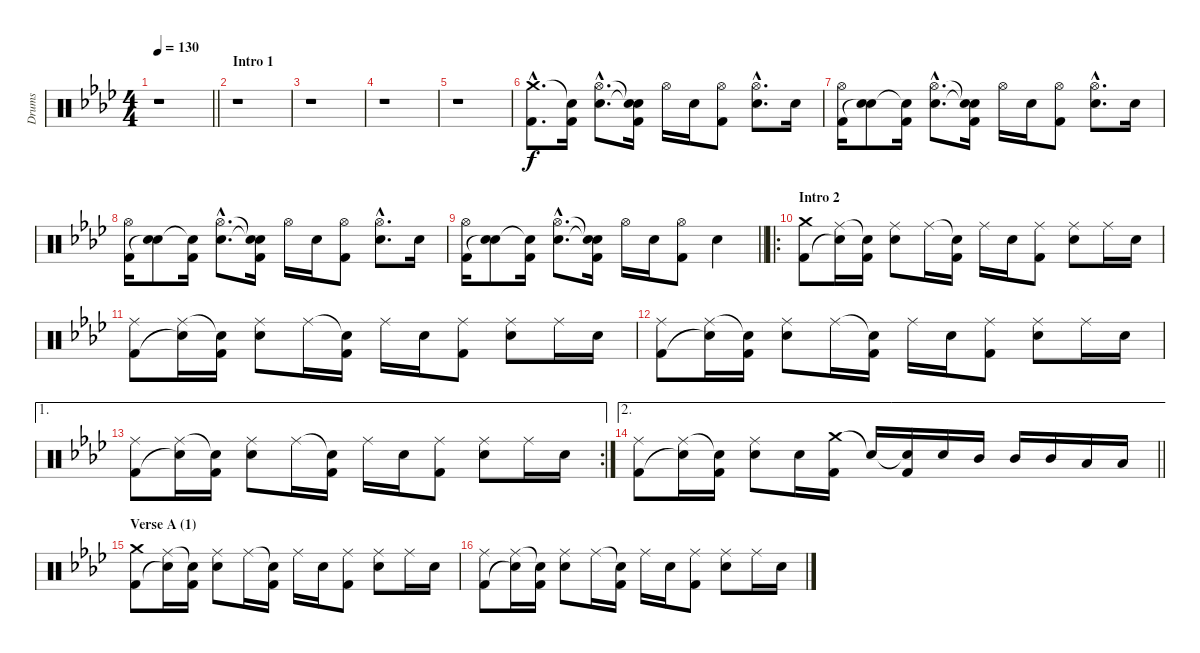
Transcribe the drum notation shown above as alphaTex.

\track ("Drums" "Drums") {instrument percussion}
\staff {score}
\articulation defaults
\ts (4 4)
\tempo 130
\clef neutral
\barLineRight lightlight
\ks fminor
r.1{dy f} |
\section ("" "Intro 1")
r.1 |
r.1 |
r.1 |
r.1 |
("Crash medium (hit)"{hac} "Kick (hit) 2"{hac}).8{d} ("Snare (hit)"{t} "Kick (hit) 2").16 ("Hi-Hat (open)"{hac} "Electric Snare (hit)"{hac}).8{d} ("Snare (hit)"{t} "Snare (hit)"{t} "Kick (hit) 2").16 "Hi-Hat (open)".16 "Electric Snare (hit)".16 ("Hi-Hat (open)" "Kick (hit) 2").8 ("Hi-Hat (open)"{hac} "Electric Snare (hit)"{hac}).8{d} "Electric Snare (hit)".16 |
("Hi-Hat (open)" "Kick (hit) 2").16 ("Electric Snare (hit)" "Snare (hit)"{t}).8 ("Snare (hit)"{t} "Kick (hit) 2").16 ("Hi-Hat (open)"{hac} "Electric Snare (hit)"{hac}).8{d} ("Snare (hit)"{t} "Snare (hit)"{t} "Kick (hit) 2").16 "Hi-Hat (open)".16 "Electric Snare (hit)".16 ("Hi-Hat (open)" "Kick (hit) 2").8 ("Hi-Hat (open)"{hac} "Electric Snare (hit)"{hac}).8{d} "Electric Snare (hit)".16 |
("Hi-Hat (open)" "Kick (hit) 2").16 ("Electric Snare (hit)" "Snare (hit)"{t}).8 ("Snare (hit)"{t} "Kick (hit) 2").16 ("Hi-Hat (open)"{hac} "Electric Snare (hit)"{hac}).8{d} ("Snare (hit)"{t} "Snare (hit)"{t} "Kick (hit) 2").16 "Hi-Hat (open)".16 "Electric Snare (hit)".16 ("Hi-Hat (open)" "Kick (hit) 2").8 ("Hi-Hat (open)"{hac} "Electric Snare (hit)"{hac}).8{d} "Electric Snare (hit)".16 |
\barLineRight lightlight
("Hi-Hat (open)" "Kick (hit) 2").16 ("Electric Snare (hit)" "Snare (hit)"{t}).8 ("Snare (hit)"{t} "Kick (hit) 2").16 ("Hi-Hat (open)"{hac} "Electric Snare (hit)"{hac}).8{d} ("Snare (hit)"{t} "Snare (hit)"{t} "Kick (hit) 2").16 "Hi-Hat (open)".16 "Electric Snare (hit)".16 ("Hi-Hat (open)" "Kick (hit) 2").8 "Electric Snare (hit)".4 |
\ro
\section ("" "Intro 2")
("Crash medium (hit)" "Kick (hit) 2").8 ("Ride (middle)" "Snare (hit)"{t}).16 ("Snare (hit)"{t} "Kick (hit) 2").16 ("Ride (middle)" "Electric Snare (hit)").8 "Ride (middle)".16 ("Snare (hit)"{t} "Kick (hit) 2").16 "Ride (middle)".16 "Electric Snare (hit)".16 ("Ride (middle)" "Kick (hit) 2").8 ("Ride (middle)" "Electric Snare (hit)").8 "Ride (middle)".16 "Electric Snare (hit)".16 |
("Ride (middle)" "Kick (hit) 2").8 ("Ride (middle)" "Snare (hit)"{t}).16 ("Snare (hit)"{t} "Kick (hit) 2").16 ("Ride (middle)" "Electric Snare (hit)").8 "Ride (middle)".16 ("Snare (hit)"{t} "Kick (hit) 2").16 "Ride (middle)".16 "Electric Snare (hit)".16 ("Ride (middle)" "Kick (hit) 2").8 ("Ride (middle)" "Electric Snare (hit)").8 "Ride (middle)".16 "Electric Snare (hit)".16 |
("Ride (middle)" "Kick (hit) 2").8 ("Ride (middle)" "Snare (hit)"{t}).16 ("Snare (hit)"{t} "Kick (hit) 2").16 ("Ride (middle)" "Electric Snare (hit)").8 "Ride (middle)".16 ("Snare (hit)"{t} "Kick (hit) 2").16 "Ride (middle)".16 "Electric Snare (hit)".16 ("Ride (middle)" "Kick (hit) 2").8 ("Ride (middle)" "Electric Snare (hit)").8 "Ride (middle)".16 "Electric Snare (hit)".16 |
\ae 1
\rc 2
("Ride (middle)" "Kick (hit) 2").8 ("Ride (middle)" "Snare (hit)"{t}).16 ("Snare (hit)"{t} "Kick (hit) 2").16 ("Ride (middle)" "Electric Snare (hit)").8 "Ride (middle)".16 ("Snare (hit)"{t} "Kick (hit) 2").16 "Ride (middle)".16 "Electric Snare (hit)".16 ("Ride (middle)" "Kick (hit) 2").8 ("Ride (middle)" "Electric Snare (hit)").8 "Ride (middle)".16 "Electric Snare (hit)".16 |
\ae 2
\barLineRight lightlight
("Ride (middle)" "Kick (hit) 2").8 ("Ride (middle)" "Snare (hit)"{t}).16 ("Snare (hit)"{t} "Kick (hit) 2").16 ("Ride (middle)" "Electric Snare (hit)").8 "Electric Snare (hit)".16 ("Crash medium (hit)" "Kick (hit) 2").16 "Snare (hit)"{t}.16 ("Snare (hit)"{t} "Kick (hit) 2").16 "Electric Snare (hit)".16 "Mid Tom (hit)".16 "Mid Tom (hit)".16 "Mid Tom (hit)".16 "Low Floor Tom (hit)".16 "Low Floor Tom (hit)".16 |
\section ("" "Verse A (1)")
("Crash medium (hit)" "Kick (hit) 2").8 ("Ride (middle)" "Snare (hit)"{t}).16 ("Snare (hit)"{t} "Kick (hit) 2").16 ("Ride (middle)" "Electric Snare (hit)").8 "Ride (middle)".16 ("Snare (hit)"{t} "Kick (hit) 2").16 "Ride (middle)".16 "Electric Snare (hit)".16 ("Ride (middle)" "Kick (hit) 2").8 ("Ride (middle)" "Electric Snare (hit)").8 "Ride (middle)".16 "Electric Snare (hit)".16 |
("Ride (middle)" "Kick (hit) 2").8 ("Ride (middle)" "Snare (hit)"{t}).16 ("Snare (hit)"{t} "Kick (hit) 2").16 ("Ride (middle)" "Electric Snare (hit)").8 "Ride (middle)".16 ("Snare (hit)"{t} "Kick (hit) 2").16 "Ride (middle)".16 "Electric Snare (hit)".16 ("Ride (middle)" "Kick (hit) 2").8 ("Ride (middle)" "Electric Snare (hit)").8 "Ride (middle)".16 "Electric Snare (hit)".16
